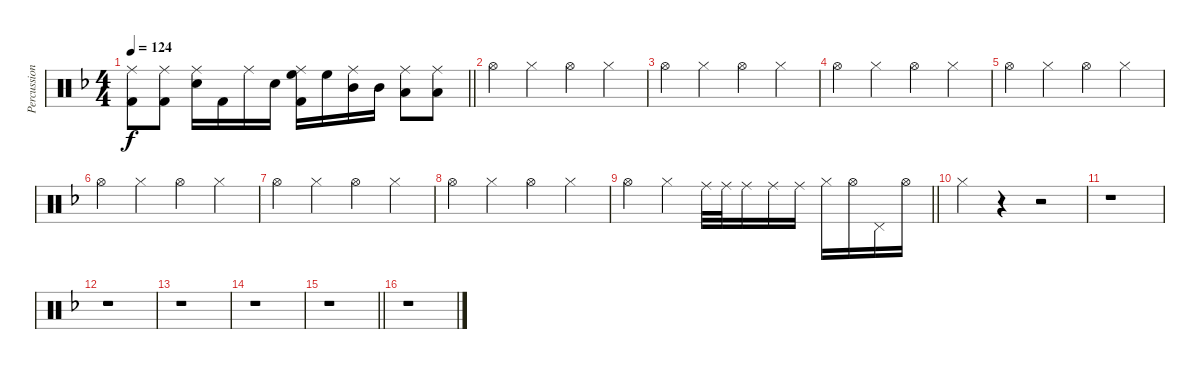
\track ("Percussions" "Percussion") {instrument percussion}
\staff {score}
\articulation defaults
\ts (4 4)
\tempo 124
\clef neutral
\barLineRight lightlight
\ks dminor
("Ride (middle)" "Kick (hit) 2").8{dy f} ("Ride (middle)" "Kick (hit) 2").8 ("Ride (middle)" "Snare (hit) 2").16 "Kick (hit) 2".16 "Ride (middle)".16 "Snare (hit) 2".16 ("Ride (middle)" "High Floor Tom (hit)" "Kick (hit) 2").16 "High Floor Tom (hit)".16 ("Ride (middle)" "Mid Tom (hit)").16 "Mid Tom (hit)".16 ("Ride (middle)" "Low Tom (hit)").8 ("Ride (middle)" "Low Floor Tom (hit)").8 |
"Hi-Hat (open)".4{volume 9} "Hi-Hat (closed)".4 "Hi-Hat (open)".4 "Hi-Hat (closed)".4 |
"Hi-Hat (open)".4 "Hi-Hat (closed)".4 "Hi-Hat (open)".4 "Hi-Hat (closed)".4 |
"Hi-Hat (open)".4 "Hi-Hat (closed)".4 "Hi-Hat (open)".4 "Hi-Hat (closed)".4 |
"Hi-Hat (open)".4 "Hi-Hat (closed)".4 "Hi-Hat (open)".4 "Hi-Hat (closed)".4 |
"Hi-Hat (open)".4 "Hi-Hat (closed)".4 "Hi-Hat (open)".4 "Hi-Hat (closed)".4 |
"Hi-Hat (open)".4 "Hi-Hat (closed)".4 "Hi-Hat (open)".4 "Hi-Hat (closed)".4 |
"Hi-Hat (open)".4 "Hi-Hat (closed)".4 "Hi-Hat (open)".4 "Hi-Hat (closed)".4 |
\barLineRight lightlight "Hi-Hat (open)".4 "Hi-Hat (closed)".4 "Ride (middle)".32 "Ride (middle)".32 "Ride (middle)".16 "Ride (middle)".16 "Ride (middle)".16 "Hi-Hat (closed)".16 "Hi-Hat (open)".16 "Pedal Hi-Hat (hit)".16 "Hi-Hat (open)".16
|
"Hi-Hat (closed)".4 r.4 r.2 |
r.1 |
r.1 |
r.1 |
r.1 |
\barLineRight lightlight
r.1 |
r.1
